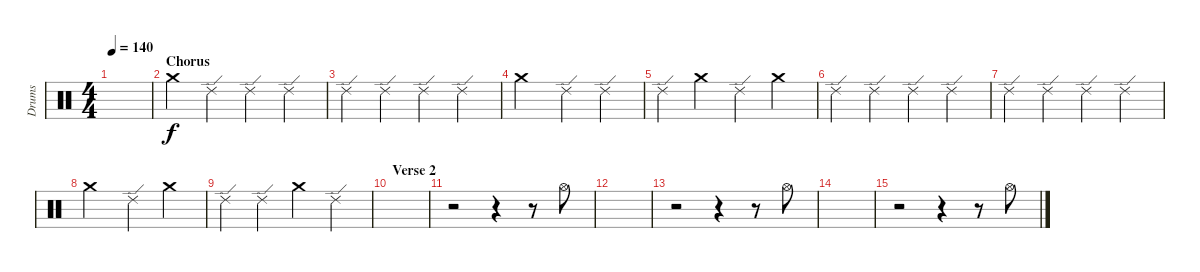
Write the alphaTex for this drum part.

\track ("Drums" "Drums") {instrument percussion}
\staff {score}
\articulation defaults
\ts (4 4)
\tempo 140
\clef neutral
\ks c
|
\section ("" "Chorus")
"Crash medium (hit)".4 "Ride (edge) 2".4 "Ride (edge) 2".4 "Ride (edge) 2".4 |
"Ride (edge) 2".4 "Ride (edge) 2".4 "Ride (edge) 2".4 "Ride (edge) 2".4 |
"Crash medium (hit)".2 "Ride (edge) 2".4 "Ride (edge) 2".4 |
"Ride (edge) 2".4 "Crash medium (hit)".4 "Ride (edge) 2".4 "Crash medium (hit)".4 |
"Ride (edge) 2".4 "Ride (edge) 2".4 "Ride (edge) 2".4 "Ride (edge) 2".4 |
"Ride (edge) 2".4 "Ride (edge) 2".4 "Ride (edge) 2".4 "Ride (edge) 2".4 |
"Crash medium (hit)".2 "Ride (edge) 2".4 "Crash medium (hit)".4 |
"Ride (edge) 2".4 "Ride (edge) 2".4 "Crash medium (hit)".4 "Ride (edge) 2".4 |
\section ("" "Verse 2")
|
r.2 r.4 r.8 "Hi-Hat (open)".8 |
|
r.2 r.4 r.8 "Hi-Hat (open)".8 |
|
r.2 r.4 r.8 "Hi-Hat (open)".8
